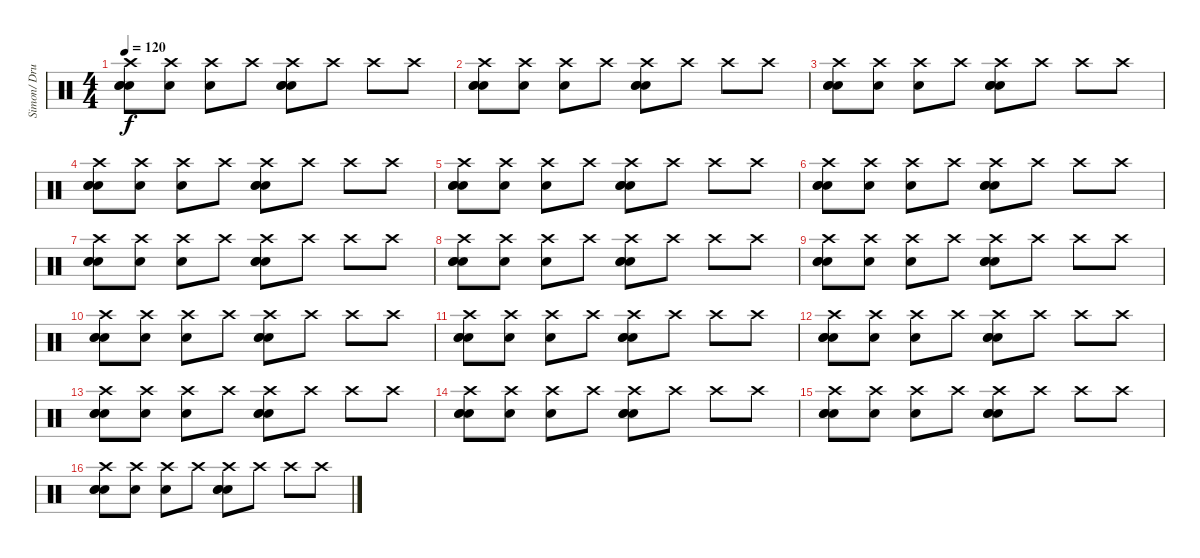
\track ("Simon/ Drums" "Simon/ Dru") {instrument percussion}
\staff {score}
\articulation defaults
\ts (4 4)
\tempo 120
\clef neutral
\ks c
("Crash high (hit)" "Snare (hit) 2" "Snare (hit) 2" "Snare (hit) 2").8{dy f} ("Crash high (hit)" "Electric Snare (hit)").8 ("Crash high (hit)" "Electric Snare (hit)").8 "Crash high (hit)".8 ("Crash high (hit)" "Snare (hit) 2" "Snare (hit) 2" "Snare (hit) 2").8 "Crash high (hit)".8 "Crash high (hit)".8 "Crash high (hit)".8 |
("Crash high (hit)" "Snare (hit) 2" "Snare (hit) 2" "Snare (hit) 2").8 ("Crash high (hit)" "Electric Snare (hit)").8 ("Crash high (hit)" "Electric Snare (hit)").8 "Crash high (hit)".8 ("Crash high (hit)" "Snare (hit) 2" "Snare (hit) 2" "Snare (hit) 2").8 "Crash high (hit)".8 "Crash high (hit)".8 "Crash high (hit)".8 |
("Crash high (hit)" "Snare (hit) 2" "Snare (hit) 2" "Snare (hit) 2").8 ("Crash high (hit)" "Electric Snare (hit)").8 ("Crash high (hit)" "Electric Snare (hit)").8 "Crash high (hit)".8 ("Crash high (hit)" "Snare (hit) 2" "Snare (hit) 2" "Snare (hit) 2").8 "Crash high (hit)".8 "Crash high (hit)".8 "Crash high (hit)".8 |
("Crash high (hit)" "Snare (hit) 2" "Snare (hit) 2" "Snare (hit) 2").8 ("Crash high (hit)" "Electric Snare (hit)").8 ("Crash high (hit)" "Electric Snare (hit)").8 "Crash high (hit)".8 ("Crash high (hit)" "Snare (hit) 2" "Snare (hit) 2" "Snare (hit) 2").8 "Crash high (hit)".8 "Crash high (hit)".8 "Crash high (hit)".8 |
("Crash high (hit)" "Snare (hit) 2" "Snare (hit) 2" "Snare (hit) 2").8 ("Crash high (hit)" "Electric Snare (hit)").8 ("Crash high (hit)" "Electric Snare (hit)").8 "Crash high (hit)".8 ("Crash high (hit)" "Snare (hit) 2" "Snare (hit) 2" "Snare (hit) 2").8 "Crash high (hit)".8 "Crash high (hit)".8 "Crash high (hit)".8 |
("Crash high (hit)" "Snare (hit) 2" "Snare (hit) 2" "Snare (hit) 2").8 ("Crash high (hit)" "Electric Snare (hit)").8 ("Crash high (hit)" "Electric Snare (hit)").8 "Crash high (hit)".8 ("Crash high (hit)" "Snare (hit) 2" "Snare (hit) 2" "Snare (hit) 2").8 "Crash high (hit)".8 "Crash high (hit)".8 "Crash high (hit)".8 |
("Crash high (hit)" "Snare (hit) 2" "Snare (hit) 2" "Snare (hit) 2").8 ("Crash high (hit)" "Electric Snare (hit)").8 ("Crash high (hit)" "Electric Snare (hit)").8 "Crash high (hit)".8 ("Crash high (hit)" "Snare (hit) 2" "Snare (hit) 2" "Snare (hit) 2").8 "Crash high (hit)".8 "Crash high (hit)".8 "Crash high (hit)".8 |
("Crash high (hit)" "Snare (hit) 2" "Snare (hit) 2" "Snare (hit) 2").8 ("Crash high (hit)" "Electric Snare (hit)").8 ("Crash high (hit)" "Electric Snare (hit)").8 "Crash high (hit)".8 ("Crash high (hit)" "Snare (hit) 2" "Snare (hit) 2" "Snare (hit) 2").8 "Crash high (hit)".8 "Crash high (hit)".8 "Crash high (hit)".8 |
("Crash high (hit)" "Snare (hit) 2" "Snare (hit) 2" "Snare (hit) 2").8 ("Crash high (hit)" "Electric Snare (hit)").8 ("Crash high (hit)" "Electric Snare (hit)").8 "Crash high (hit)".8 ("Crash high (hit)" "Snare (hit) 2" "Snare (hit) 2" "Snare (hit) 2").8 "Crash high (hit)".8 "Crash high (hit)".8 "Crash high (hit)".8 |
("Crash high (hit)" "Snare (hit) 2" "Snare (hit) 2" "Snare (hit) 2").8 ("Crash high (hit)" "Electric Snare (hit)").8 ("Crash high (hit)" "Electric Snare (hit)").8 "Crash high (hit)".8 ("Crash high (hit)" "Snare (hit) 2" "Snare (hit) 2" "Snare (hit) 2").8 "Crash high (hit)".8 "Crash high (hit)".8 "Crash high (hit)".8 |
("Crash high (hit)" "Snare (hit) 2" "Snare (hit) 2" "Snare (hit) 2").8 ("Crash high (hit)" "Electric Snare (hit)").8 ("Crash high (hit)" "Electric Snare (hit)").8 "Crash high (hit)".8 ("Crash high (hit)" "Snare (hit) 2" "Snare (hit) 2" "Snare (hit) 2").8 "Crash high (hit)".8 "Crash high (hit)".8 "Crash high (hit)".8 |
("Crash high (hit)" "Snare (hit) 2" "Snare (hit) 2" "Snare (hit) 2").8 ("Crash high (hit)" "Electric Snare (hit)").8 ("Crash high (hit)" "Electric Snare (hit)").8 "Crash high (hit)".8 ("Crash high (hit)" "Snare (hit) 2" "Snare (hit) 2" "Snare (hit) 2").8 "Crash high (hit)".8 "Crash high (hit)".8 "Crash high (hit)".8 |
("Crash high (hit)" "Snare (hit) 2" "Snare (hit) 2" "Snare (hit) 2").8 ("Crash high (hit)" "Electric Snare (hit)").8 ("Crash high (hit)" "Electric Snare (hit)").8 "Crash high (hit)".8 ("Crash high (hit)" "Snare (hit) 2" "Snare (hit) 2" "Snare (hit) 2").8 "Crash high (hit)".8 "Crash high (hit)".8 "Crash high (hit)".8 |
("Crash high (hit)" "Snare (hit) 2" "Snare (hit) 2" "Snare (hit) 2").8 ("Crash high (hit)" "Electric Snare (hit)").8 ("Crash high (hit)" "Electric Snare (hit)").8 "Crash high (hit)".8 ("Crash high (hit)" "Snare (hit) 2" "Snare (hit) 2" "Snare (hit) 2").8 "Crash high (hit)".8 "Crash high (hit)".8 "Crash high (hit)".8 |
("Crash high (hit)" "Snare (hit) 2" "Snare (hit) 2" "Snare (hit) 2").8 ("Crash high (hit)" "Electric Snare (hit)").8 ("Crash high (hit)" "Electric Snare (hit)").8 "Crash high (hit)".8 ("Crash high (hit)" "Snare (hit) 2" "Snare (hit) 2" "Snare (hit) 2").8 "Crash high (hit)".8 "Crash high (hit)".8 "Crash high (hit)".8 |
("Crash high (hit)" "Snare (hit) 2" "Snare (hit) 2" "Snare (hit) 2").8 ("Crash high (hit)" "Electric Snare (hit)").8 ("Crash high (hit)" "Electric Snare (hit)").8 "Crash high (hit)".8 ("Crash high (hit)" "Snare (hit) 2" "Snare (hit) 2" "Snare (hit) 2").8 "Crash high (hit)".8 "Crash high (hit)".8 "Crash high (hit)".8
